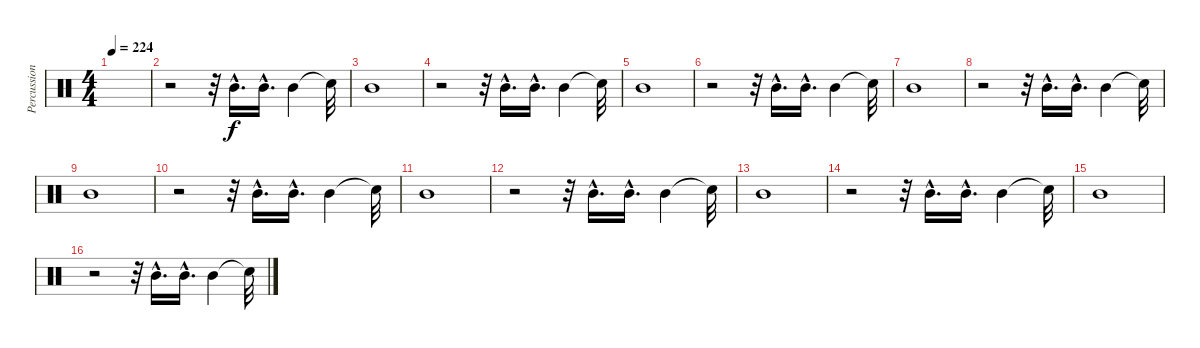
\track ("Percussions" "Percussion") {instrument percussion}
\staff {score}
\articulation defaults
\ts (4 4)
\tempo 224
\clef neutral
\ks c
|
r.2 r.32 "Mid Tom (hit)"{hac}.16{d} "Mid Tom (hit)"{hac}.16{d} "Mid Tom (hit)".4 "Snare (hit)"{t}.32 |
"Mid Tom (hit)".1 |
r.2 r.32 "Mid Tom (hit)"{hac}.16{d} "Mid Tom (hit)"{hac}.16{d} "Mid Tom (hit)".4 "Snare (hit)"{t}.32 |
"Mid Tom (hit)".1 |
r.2 r.32 "Mid Tom (hit)"{hac}.16{d} "Mid Tom (hit)"{hac}.16{d} "Mid Tom (hit)".4 "Snare (hit)"{t}.32 |
"Mid Tom (hit)".1 |
r.2 r.32 "Mid Tom (hit)"{hac}.16{d} "Mid Tom (hit)"{hac}.16{d} "Mid Tom (hit)".4 "Snare (hit)"{t}.32 |
"Mid Tom (hit)".1 |
r.2 r.32 "Mid Tom (hit)"{hac}.16{d} "Mid Tom (hit)"{hac}.16{d} "Mid Tom (hit)".4 "Snare (hit)"{t}.32 |
"Mid Tom (hit)".1 |
r.2 r.32 "Mid Tom (hit)"{hac}.16{d} "Mid Tom (hit)"{hac}.16{d} "Mid Tom (hit)".4 "Snare (hit)"{t}.32 |
"Mid Tom (hit)".1 |
r.2 r.32 "Mid Tom (hit)"{hac}.16{d} "Mid Tom (hit)"{hac}.16{d} "Mid Tom (hit)".4 "Snare (hit)"{t}.32 |
"Mid Tom (hit)".1 |
r.2 r.32 "Mid Tom (hit)"{hac}.16{d} "Mid Tom (hit)"{hac}.16{d} "Mid Tom (hit)".4 "Snare (hit)"{t}.32
